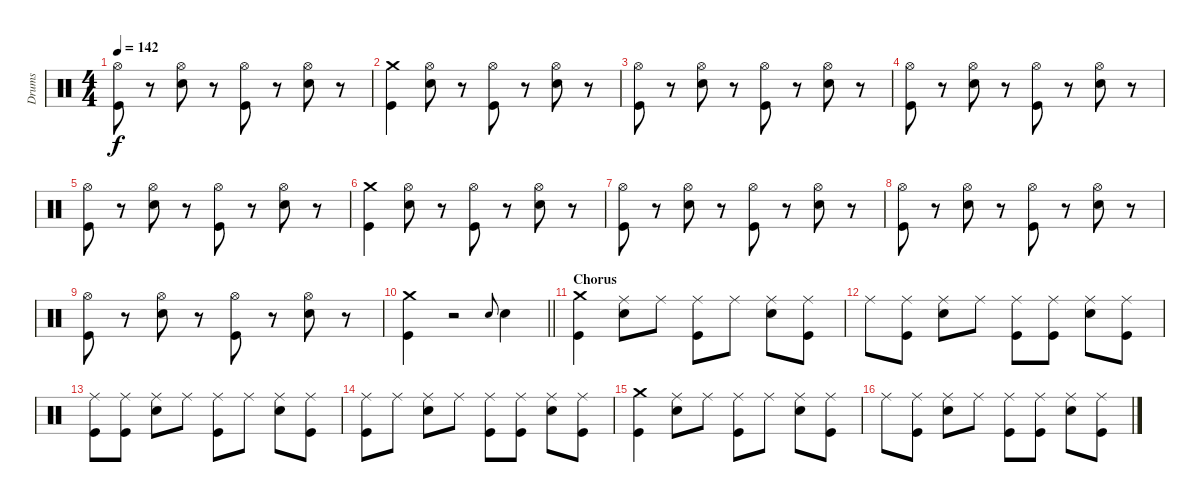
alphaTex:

\track ("Drums" "Drums") {instrument percussion}
\staff {score}
\articulation defaults
\ts (4 4)
\tempo 142
\clef neutral
\ks c
("Hi-Hat (open)" "Kick (hit)").8{dy f} r.8 ("Hi-Hat (open)" "Electric Snare (hit)").8 r.8 ("Hi-Hat (open)" "Kick (hit)").8 r.8 ("Hi-Hat (open)" "Electric Snare (hit)").8 r.8 |
("Crash medium (hit)" "Kick (hit)").4 ("Hi-Hat (open)" "Electric Snare (hit)").8 r.8 ("Hi-Hat (open)" "Kick (hit)").8 r.8 ("Hi-Hat (open)" "Electric Snare (hit)").8 r.8 |
("Hi-Hat (open)" "Kick (hit)").8 r.8 ("Hi-Hat (open)" "Electric Snare (hit)").8 r.8 ("Hi-Hat (open)" "Kick (hit)").8 r.8 ("Hi-Hat (open)" "Electric Snare (hit)").8 r.8 |
("Hi-Hat (open)" "Kick (hit)").8 r.8 ("Hi-Hat (open)" "Electric Snare (hit)").8 r.8 ("Hi-Hat (open)" "Kick (hit)").8 r.8 ("Hi-Hat (open)" "Electric Snare (hit)").8 r.8 |
("Hi-Hat (open)" "Kick (hit)").8 r.8 ("Hi-Hat (open)" "Electric Snare (hit)").8 r.8 ("Hi-Hat (open)" "Kick (hit)").8 r.8 ("Hi-Hat (open)" "Electric Snare (hit)").8 r.8 |
("Crash medium (hit)" "Kick (hit)").4 ("Hi-Hat (open)" "Electric Snare (hit)").8 r.8 ("Hi-Hat (open)" "Kick (hit)").8 r.8 ("Hi-Hat (open)" "Electric Snare (hit)").8 r.8 |
("Hi-Hat (open)" "Kick (hit)").8 r.8 ("Hi-Hat (open)" "Electric Snare (hit)").8 r.8 ("Hi-Hat (open)" "Kick (hit)").8 r.8 ("Hi-Hat (open)" "Electric Snare (hit)").8 r.8 |
("Hi-Hat (open)" "Kick (hit)").8 r.8 ("Hi-Hat (open)" "Electric Snare (hit)").8 r.8 ("Hi-Hat (open)" "Kick (hit)").8 r.8 ("Hi-Hat (open)" "Electric Snare (hit)").8 r.8 |
("Hi-Hat (open)" "Kick (hit)").8 r.8 ("Hi-Hat (open)" "Electric Snare (hit)").8 r.8 ("Hi-Hat (open)" "Kick (hit)").8 r.8 ("Hi-Hat (open)" "Electric Snare (hit)").8 r.8 |
\barLineRight lightlight
("Crash medium (hit)" "Kick (hit)").4 r.2 "Electric Snare (hit)".8{gr onbeat} "Electric Snare (hit)".4 |
\section ("" "Chorus")
("Crash medium (hit)" "Kick (hit)").4 ("Ride (middle)" "Electric Snare (hit)").8 "Ride (middle)".8 ("Ride (middle)" "Kick (hit)").8 "Ride (middle)".8 ("Ride (middle)" "Electric Snare (hit)").8 ("Ride (middle)" "Kick (hit)").8 |
"Ride (middle)".8 ("Ride (middle)" "Kick (hit)").8 ("Ride (middle)" "Electric Snare (hit)").8 "Ride (middle)".8 ("Ride (middle)" "Kick (hit)").8 ("Ride (middle)" "Kick (hit)").8 ("Ride (middle)" "Electric Snare (hit)").8 ("Ride (middle)" "Kick (hit)").8 |
("Ride (middle)" "Kick (hit)").8 ("Ride (middle)" "Kick (hit)").8 ("Ride (middle)" "Electric Snare (hit)").8 "Ride (middle)".8 ("Ride (middle)" "Kick (hit)").8 "Ride (middle)".8 ("Ride (middle)" "Electric Snare (hit)").8 ("Ride (middle)" "Kick (hit)").8 |
("Ride (middle)" "Kick (hit)").8 "Ride (middle)".8 ("Ride (middle)" "Electric Snare (hit)").8 "Ride (middle)".8 ("Ride (middle)" "Kick (hit)").8 ("Ride (middle)" "Kick (hit)").8 ("Ride (middle)" "Electric Snare (hit)").8 ("Ride (middle)" "Kick (hit)").8 |
("Crash medium (hit)" "Kick (hit)").4 ("Ride (middle)" "Electric Snare (hit)").8 "Ride (middle)".8 ("Ride (middle)" "Kick (hit)").8 "Ride (middle)".8 ("Ride (middle)" "Electric Snare (hit)").8 ("Ride (middle)" "Kick (hit)").8 |
"Ride (middle)".8 ("Ride (middle)" "Kick (hit)").8 ("Ride (middle)" "Electric Snare (hit)").8 "Ride (middle)".8 ("Ride (middle)" "Kick (hit)").8 ("Ride (middle)" "Kick (hit)").8 ("Ride (middle)" "Electric Snare (hit)").8 ("Ride (middle)" "Kick (hit)").8
